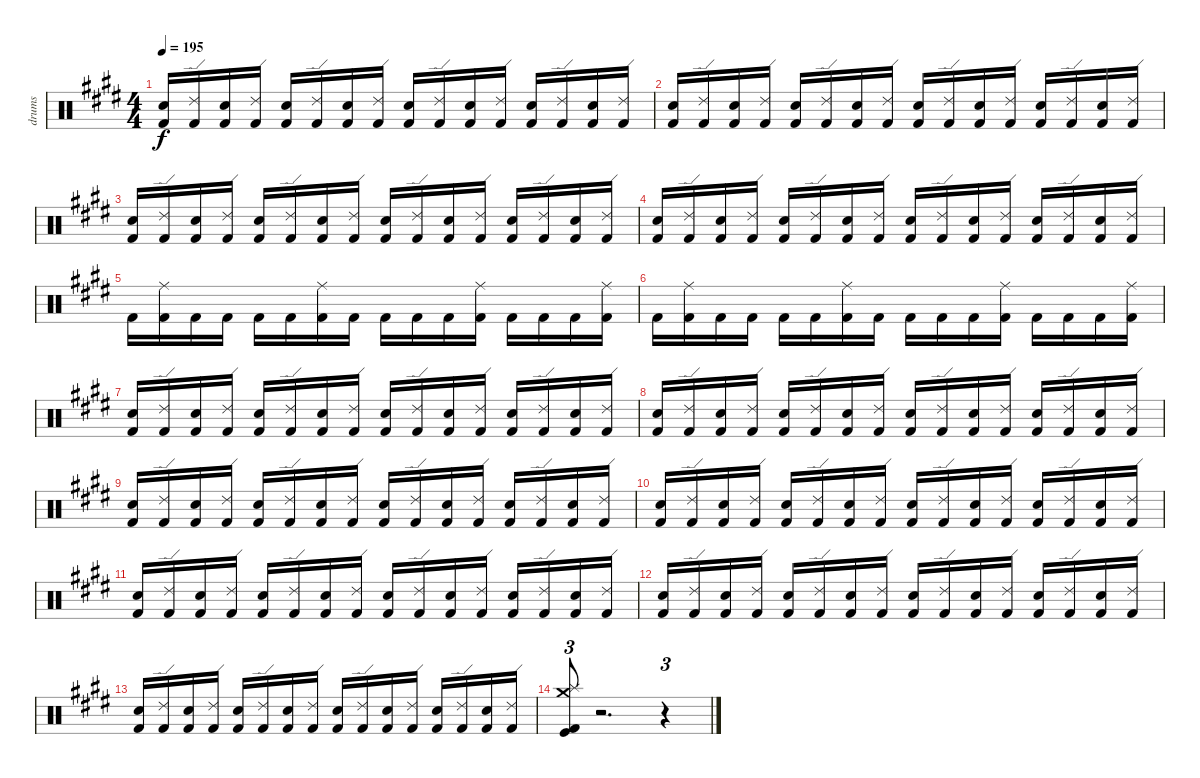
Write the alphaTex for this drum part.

\track ("drums" "drums") {instrument percussion}
\staff {score}
\articulation defaults
\ts (4 4)
\tempo 195
\clef neutral
\ks e
("Kick (hit) 2" "Electric Snare (hit)").16{dy f} ("Kick (hit) 2" "Ride (edge) 2").16 ("Kick (hit) 2" "Electric Snare (hit)").16 ("Kick (hit) 2" "Ride (edge) 2").16 ("Kick (hit) 2" "Electric Snare (hit)").16 ("Kick (hit) 2" "Ride (edge) 2").16 ("Kick (hit) 2" "Electric Snare (hit)").16 ("Kick (hit) 2" "Ride (edge) 2").16 ("Kick (hit) 2" "Electric Snare (hit)").16 ("Kick (hit) 2" "Ride (edge) 2").16 ("Kick (hit) 2" "Electric Snare (hit)").16 ("Kick (hit) 2" "Ride (edge) 2").16 ("Kick (hit) 2" "Electric Snare (hit)").16 ("Kick (hit) 2" "Ride (edge) 2").16 ("Kick (hit) 2" "Electric Snare (hit)").16 ("Kick (hit) 2" "Ride (edge) 2").16 |
("Kick (hit) 2" "Electric Snare (hit)").16 ("Kick (hit) 2" "Ride (edge) 2").16 ("Kick (hit) 2" "Electric Snare (hit)").16 ("Kick (hit) 2" "Ride (edge) 2").16 ("Kick (hit) 2" "Electric Snare (hit)").16 ("Kick (hit) 2" "Ride (edge) 2").16 ("Kick (hit) 2" "Electric Snare (hit)").16 ("Kick (hit) 2" "Ride (edge) 2").16 ("Kick (hit) 2" "Electric Snare (hit)").16 ("Kick (hit) 2" "Ride (edge) 2").16 ("Kick (hit) 2" "Electric Snare (hit)").16 ("Kick (hit) 2" "Ride (edge) 2").16 ("Kick (hit) 2" "Electric Snare (hit)").16 ("Kick (hit) 2" "Ride (edge) 2").16 ("Kick (hit) 2" "Electric Snare (hit)").16 ("Kick (hit) 2" "Ride (edge) 2").16 |
("Kick (hit) 2" "Electric Snare (hit)").16 ("Kick (hit) 2" "Ride (edge) 2").16 ("Kick (hit) 2" "Electric Snare (hit)").16 ("Kick (hit) 2" "Ride (edge) 2").16 ("Kick (hit) 2" "Electric Snare (hit)").16 ("Kick (hit) 2" "Ride (edge) 2").16 ("Kick (hit) 2" "Electric Snare (hit)").16 ("Kick (hit) 2" "Ride (edge) 2").16 ("Kick (hit) 2" "Electric Snare (hit)").16 ("Kick (hit) 2" "Ride (edge) 2").16 ("Kick (hit) 2" "Electric Snare (hit)").16 ("Kick (hit) 2" "Ride (edge) 2").16 ("Kick (hit) 2" "Electric Snare (hit)").16 ("Kick (hit) 2" "Ride (edge) 2").16 ("Kick (hit) 2" "Electric Snare (hit)").16 ("Kick (hit) 2" "Ride (edge) 2").16 |
("Kick (hit) 2" "Electric Snare (hit)").16 ("Kick (hit) 2" "Ride (edge) 2").16 ("Kick (hit) 2" "Electric Snare (hit)").16 ("Kick (hit) 2" "Ride (edge) 2").16 ("Kick (hit) 2" "Electric Snare (hit)").16 ("Kick (hit) 2" "Ride (edge) 2").16 ("Kick (hit) 2" "Electric Snare (hit)").16 ("Kick (hit) 2" "Ride (edge) 2").16 ("Kick (hit) 2" "Electric Snare (hit)").16 ("Kick (hit) 2" "Ride (edge) 2").16 ("Kick (hit) 2" "Electric Snare (hit)").16 ("Kick (hit) 2" "Ride (edge) 2").16 ("Kick (hit) 2" "Electric Snare (hit)").16 ("Kick (hit) 2" "Ride (edge) 2").16 ("Kick (hit) 2" "Electric Snare (hit)").16 ("Kick (hit) 2" "Ride (edge) 2").16 |
"Kick (hit) 2".16 ("Kick (hit) 2" "Ride (middle)").16 "Kick (hit) 2".16 "Kick (hit) 2".16 "Kick (hit) 2".16 "Kick (hit) 2".16 ("Kick (hit) 2" "Ride (middle)").16 "Kick (hit) 2".16 "Kick (hit) 2".16 "Kick (hit) 2".16 "Kick (hit) 2".16 ("Kick (hit) 2" "Ride (middle)").16 "Kick (hit) 2".16 "Kick (hit) 2".16 "Kick (hit) 2".16 ("Kick (hit) 2" "Ride (middle)").16 |
"Kick (hit) 2".16 ("Kick (hit) 2" "Ride (middle)").16 "Kick (hit) 2".16 "Kick (hit) 2".16 "Kick (hit) 2".16 "Kick (hit) 2".16 ("Kick (hit) 2" "Ride (middle)").16 "Kick (hit) 2".16 "Kick (hit) 2".16 "Kick (hit) 2".16 "Kick (hit) 2".16 ("Kick (hit) 2" "Ride (middle)").16 "Kick (hit) 2".16 "Kick (hit) 2".16 "Kick (hit) 2".16 ("Kick (hit) 2" "Ride (middle)").16 |
("Kick (hit) 2" "Electric Snare (hit)").16 ("Kick (hit) 2" "Ride (edge) 2").16 ("Kick (hit) 2" "Electric Snare (hit)").16 ("Kick (hit) 2" "Ride (edge) 2").16 ("Kick (hit) 2" "Electric Snare (hit)").16 ("Kick (hit) 2" "Ride (edge) 2").16 ("Kick (hit) 2" "Electric Snare (hit)").16 ("Kick (hit) 2" "Ride (edge) 2").16 ("Kick (hit) 2" "Electric Snare (hit)").16 ("Kick (hit) 2" "Ride (edge) 2").16 ("Kick (hit) 2" "Electric Snare (hit)").16 ("Kick (hit) 2" "Ride (edge) 2").16 ("Kick (hit) 2" "Electric Snare (hit)").16 ("Kick (hit) 2" "Ride (edge) 2").16 ("Kick (hit) 2" "Electric Snare (hit)").16 ("Kick (hit) 2" "Ride (edge) 2").16 |
("Kick (hit) 2" "Electric Snare (hit)").16 ("Kick (hit) 2" "Ride (edge) 2").16 ("Kick (hit) 2" "Electric Snare (hit)").16 ("Kick (hit) 2" "Ride (edge) 2").16 ("Kick (hit) 2" "Electric Snare (hit)").16 ("Kick (hit) 2" "Ride (edge) 2").16 ("Kick (hit) 2" "Electric Snare (hit)").16 ("Kick (hit) 2" "Ride (edge) 2").16 ("Kick (hit) 2" "Electric Snare (hit)").16 ("Kick (hit) 2" "Ride (edge) 2").16 ("Kick (hit) 2" "Electric Snare (hit)").16 ("Kick (hit) 2" "Ride (edge) 2").16 ("Kick (hit) 2" "Electric Snare (hit)").16 ("Kick (hit) 2" "Ride (edge) 2").16 ("Kick (hit) 2" "Electric Snare (hit)").16 ("Kick (hit) 2" "Ride (edge) 2").16 |
("Kick (hit) 2" "Electric Snare (hit)").16 ("Kick (hit) 2" "Ride (edge) 2").16 ("Kick (hit) 2" "Electric Snare (hit)").16 ("Kick (hit) 2" "Ride (edge) 2").16 ("Kick (hit) 2" "Electric Snare (hit)").16 ("Kick (hit) 2" "Ride (edge) 2").16 ("Kick (hit) 2" "Electric Snare (hit)").16 ("Kick (hit) 2" "Ride (edge) 2").16 ("Kick (hit) 2" "Electric Snare (hit)").16 ("Kick (hit) 2" "Ride (edge) 2").16 ("Kick (hit) 2" "Electric Snare (hit)").16 ("Kick (hit) 2" "Ride (edge) 2").16 ("Kick (hit) 2" "Electric Snare (hit)").16 ("Kick (hit) 2" "Ride (edge) 2").16 ("Kick (hit) 2" "Electric Snare (hit)").16 ("Kick (hit) 2" "Ride (edge) 2").16 |
("Kick (hit) 2" "Electric Snare (hit)").16 ("Kick (hit) 2" "Ride (edge) 2").16 ("Kick (hit) 2" "Electric Snare (hit)").16 ("Kick (hit) 2" "Ride (edge) 2").16 ("Kick (hit) 2" "Electric Snare (hit)").16 ("Kick (hit) 2" "Ride (edge) 2").16 ("Kick (hit) 2" "Electric Snare (hit)").16 ("Kick (hit) 2" "Ride (edge) 2").16 ("Kick (hit) 2" "Electric Snare (hit)").16 ("Kick (hit) 2" "Ride (edge) 2").16 ("Kick (hit) 2" "Electric Snare (hit)").16 ("Kick (hit) 2" "Ride (edge) 2").16 ("Kick (hit) 2" "Electric Snare (hit)").16 ("Kick (hit) 2" "Ride (edge) 2").16 ("Kick (hit) 2" "Electric Snare (hit)").16 ("Kick (hit) 2" "Ride (edge) 2").16 |
("Kick (hit) 2" "Electric Snare (hit)").16 ("Kick (hit) 2" "Ride (edge) 2").16 ("Kick (hit) 2" "Electric Snare (hit)").16 ("Kick (hit) 2" "Ride (edge) 2").16 ("Kick (hit) 2" "Electric Snare (hit)").16 ("Kick (hit) 2" "Ride (edge) 2").16 ("Kick (hit) 2" "Electric Snare (hit)").16 ("Kick (hit) 2" "Ride (edge) 2").16 ("Kick (hit) 2" "Electric Snare (hit)").16 ("Kick (hit) 2" "Ride (edge) 2").16 ("Kick (hit) 2" "Electric Snare (hit)").16 ("Kick (hit) 2" "Ride (edge) 2").16 ("Kick (hit) 2" "Electric Snare (hit)").16 ("Kick (hit) 2" "Ride (edge) 2").16 ("Kick (hit) 2" "Electric Snare (hit)").16 ("Kick (hit) 2" "Ride (edge) 2").16 |
("Kick (hit) 2" "Electric Snare (hit)").16 ("Kick (hit) 2" "Ride (edge) 2").16 ("Kick (hit) 2" "Electric Snare (hit)").16 ("Kick (hit) 2" "Ride (edge) 2").16 ("Kick (hit) 2" "Electric Snare (hit)").16 ("Kick (hit) 2" "Ride (edge) 2").16 ("Kick (hit) 2" "Electric Snare (hit)").16 ("Kick (hit) 2" "Ride (edge) 2").16 ("Kick (hit) 2" "Electric Snare (hit)").16 ("Kick (hit) 2" "Ride (edge) 2").16 ("Kick (hit) 2" "Electric Snare (hit)").16 ("Kick (hit) 2" "Ride (edge) 2").16 ("Kick (hit) 2" "Electric Snare (hit)").16 ("Kick (hit) 2" "Ride (edge) 2").16 ("Kick (hit) 2" "Electric Snare (hit)").16 ("Kick (hit) 2" "Ride (edge) 2").16 |
("Kick (hit) 2" "Electric Snare (hit)").16 ("Kick (hit) 2" "Ride (edge) 2").16 ("Kick (hit) 2" "Electric Snare (hit)").16 ("Kick (hit) 2" "Ride (edge) 2").16 ("Kick (hit) 2" "Electric Snare (hit)").16 ("Kick (hit) 2" "Ride (edge) 2").16 ("Kick (hit) 2" "Electric Snare (hit)").16 ("Kick (hit) 2" "Ride (edge) 2").16 ("Kick (hit) 2" "Electric Snare (hit)").16 ("Kick (hit) 2" "Ride (edge) 2").16 ("Kick (hit) 2" "Electric Snare (hit)").16 ("Kick (hit) 2" "Ride (edge) 2").16 ("Kick (hit) 2" "Electric Snare (hit)").16 ("Kick (hit) 2" "Ride (edge) 2").16 ("Kick (hit) 2" "Electric Snare (hit)").16 ("Kick (hit) 2" "Ride (edge) 2").16 |
("Crash medium (hit)" "Splash (hit)" "Kick (hit)" "Kick (hit) 2").8{tu (3 2)} r.2{d} r.4{tu (3 2)}
